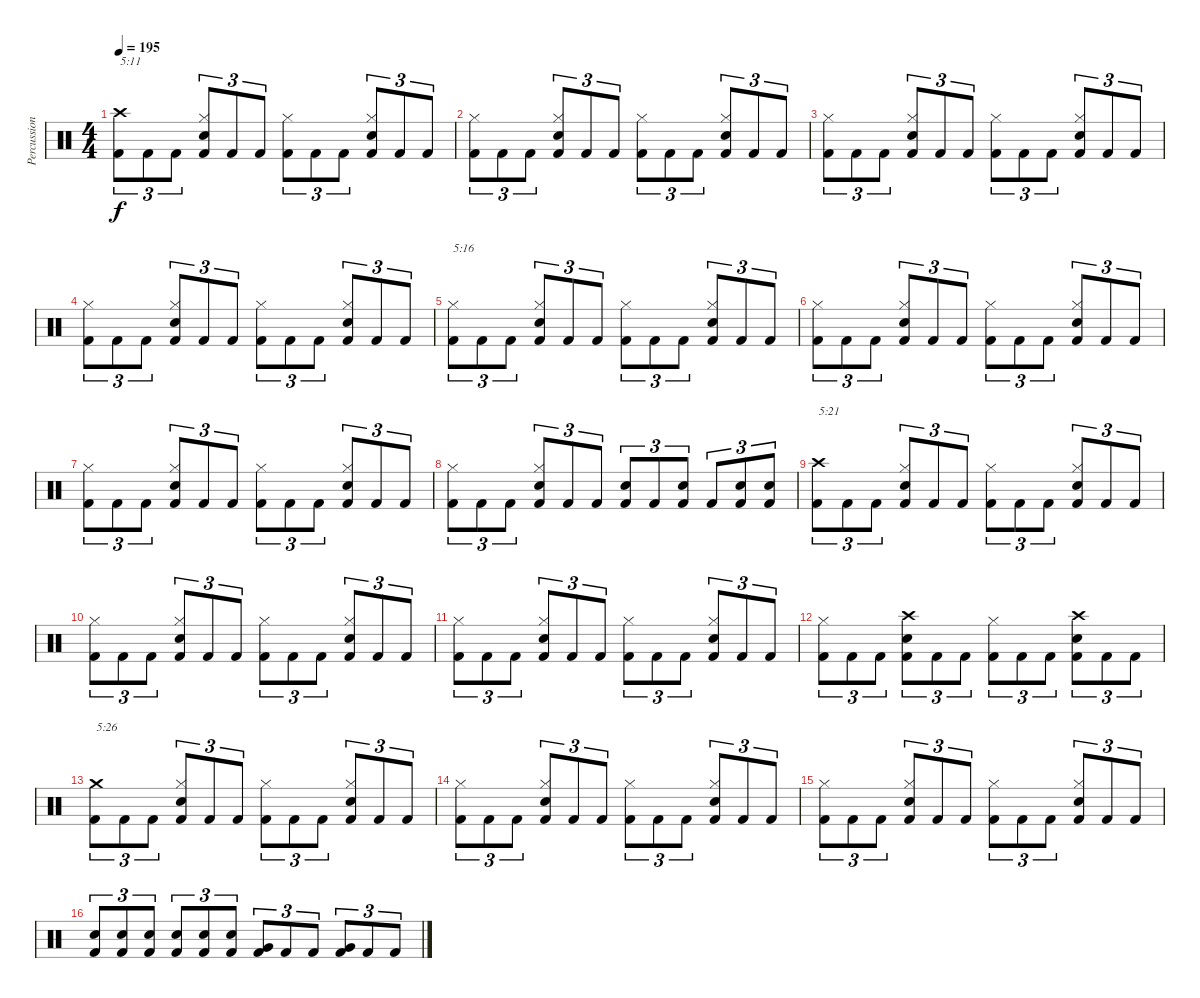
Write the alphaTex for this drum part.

\track ("Percussion" "Percussion") {instrument percussion}
\staff {score}
\articulation defaults
\ts (4 4)
\tempo 195
\clef neutral
\ks c
("Crash high (hit)" "Kick (hit) 2").8{tu (3 2) txt "5:11" dy f} "Kick (hit) 2".8{tu (3 2)} "Kick (hit) 2".8{tu (3 2)} ("Hi-Hat (closed)" "Snare (hit) 2" "Kick (hit) 2").8{tu (3 2)} "Kick (hit) 2".8{tu (3 2)} "Kick (hit) 2".8{tu (3 2)} ("Hi-Hat (closed)" "Kick (hit) 2").8{tu (3 2)} "Kick (hit) 2".8{tu (3 2)} "Kick (hit) 2".8{tu (3 2)} ("Hi-Hat (closed)" "Snare (hit) 2" "Kick (hit) 2").8{tu (3 2)} "Kick (hit) 2".8{tu (3 2)} "Kick (hit) 2".8{tu (3 2)} |
("Hi-Hat (closed)" "Kick (hit) 2").8{tu (3 2)} "Kick (hit) 2".8{tu (3 2)} "Kick (hit) 2".8{tu (3 2)} ("Hi-Hat (closed)" "Snare (hit) 2" "Kick (hit) 2").8{tu (3 2)} "Kick (hit) 2".8{tu (3 2)} "Kick (hit) 2".8{tu (3 2)} ("Hi-Hat (closed)" "Kick (hit) 2").8{tu (3 2)} "Kick (hit) 2".8{tu (3 2)} "Kick (hit) 2".8{tu (3 2)} ("Hi-Hat (closed)" "Snare (hit) 2" "Kick (hit) 2").8{tu (3 2)} "Kick (hit) 2".8{tu (3 2)} "Kick (hit) 2".8{tu (3 2)} |
("Hi-Hat (closed)" "Kick (hit) 2").8{tu (3 2)} "Kick (hit) 2".8{tu (3 2)} "Kick (hit) 2".8{tu (3 2)} ("Hi-Hat (closed)" "Snare (hit) 2" "Kick (hit) 2").8{tu (3 2)} "Kick (hit) 2".8{tu (3 2)} "Kick (hit) 2".8{tu (3 2)} ("Hi-Hat (closed)" "Kick (hit) 2").8{tu (3 2)} "Kick (hit) 2".8{tu (3 2)} "Kick (hit) 2".8{tu (3 2)} ("Hi-Hat (closed)" "Snare (hit) 2" "Kick (hit) 2").8{tu (3 2)} "Kick (hit) 2".8{tu (3 2)} "Kick (hit) 2".8{tu (3 2)} |
("Hi-Hat (closed)" "Kick (hit) 2").8{tu (3 2)} "Kick (hit) 2".8{tu (3 2)} "Kick (hit) 2".8{tu (3 2)} ("Hi-Hat (closed)" "Snare (hit) 2" "Kick (hit) 2").8{tu (3 2)} "Kick (hit) 2".8{tu (3 2)} "Kick (hit) 2".8{tu (3 2)} ("Hi-Hat (closed)" "Kick (hit) 2").8{tu (3 2)} "Kick (hit) 2".8{tu (3 2)} "Kick (hit) 2".8{tu (3 2)} ("Hi-Hat (closed)" "Snare (hit) 2" "Kick (hit) 2").8{tu (3 2)} "Kick (hit) 2".8{tu (3 2)} "Kick (hit) 2".8{tu (3 2)} |
("Hi-Hat (closed)" "Kick (hit) 2").8{tu (3 2) txt "5:16"} "Kick (hit) 2".8{tu (3 2)} "Kick (hit) 2".8{tu (3 2)} ("Hi-Hat (closed)" "Snare (hit) 2" "Kick (hit) 2").8{tu (3 2)} "Kick (hit) 2".8{tu (3 2)} "Kick (hit) 2".8{tu (3 2)} ("Hi-Hat (closed)" "Kick (hit) 2").8{tu (3 2)} "Kick (hit) 2".8{tu (3 2)} "Kick (hit) 2".8{tu (3 2)} ("Hi-Hat (closed)" "Snare (hit) 2" "Kick (hit) 2").8{tu (3 2)} "Kick (hit) 2".8{tu (3 2)} "Kick (hit) 2".8{tu (3 2)} |
("Hi-Hat (closed)" "Kick (hit) 2").8{tu (3 2)} "Kick (hit) 2".8{tu (3 2)} "Kick (hit) 2".8{tu (3 2)} ("Hi-Hat (closed)" "Snare (hit) 2" "Kick (hit) 2").8{tu (3 2)} "Kick (hit) 2".8{tu (3 2)} "Kick (hit) 2".8{tu (3 2)} ("Hi-Hat (closed)" "Kick (hit) 2").8{tu (3 2)} "Kick (hit) 2".8{tu (3 2)} "Kick (hit) 2".8{tu (3 2)} ("Hi-Hat (closed)" "Snare (hit) 2" "Kick (hit) 2").8{tu (3 2)} "Kick (hit) 2".8{tu (3 2)} "Kick (hit) 2".8{tu (3 2)} |
("Hi-Hat (closed)" "Kick (hit) 2").8{tu (3 2)} "Kick (hit) 2".8{tu (3 2)} "Kick (hit) 2".8{tu (3 2)} ("Hi-Hat (closed)" "Snare (hit) 2" "Kick (hit) 2").8{tu (3 2)} "Kick (hit) 2".8{tu (3 2)} "Kick (hit) 2".8{tu (3 2)} ("Hi-Hat (closed)" "Kick (hit) 2").8{tu (3 2)} "Kick (hit) 2".8{tu (3 2)} "Kick (hit) 2".8{tu (3 2)} ("Hi-Hat (closed)" "Snare (hit) 2" "Kick (hit) 2").8{tu (3 2)} "Kick (hit) 2".8{tu (3 2)} "Kick (hit) 2".8{tu (3 2)} |
("Hi-Hat (closed)" "Kick (hit) 2").8{tu (3 2)} "Kick (hit) 2".8{tu (3 2)} "Kick (hit) 2".8{tu (3 2)} ("Hi-Hat (closed)" "Snare (hit) 2" "Kick (hit) 2").8{tu (3 2)} "Kick (hit) 2".8{tu (3 2)} "Kick (hit) 2".8{tu (3 2)} ("Snare (hit) 2" "Kick (hit) 2").8{tu (3 2)} "Kick (hit) 2".8{tu (3 2)} ("Snare (hit) 2" "Kick (hit) 2").8{tu (3 2)} "Kick (hit) 2".8{tu (3 2)} ("Snare (hit) 2" "Kick (hit) 2").8{tu (3 2)} ("Snare (hit) 2" "Kick (hit) 2").8{tu (3 2)} |
("Crash high (hit)" "Kick (hit) 2").8{tu (3 2) txt "5:21"} "Kick (hit) 2".8{tu (3 2)} "Kick (hit) 2".8{tu (3 2)} ("Hi-Hat (closed)" "Snare (hit) 2" "Kick (hit) 2").8{tu (3 2)} "Kick (hit) 2".8{tu (3 2)} "Kick (hit) 2".8{tu (3 2)} ("Hi-Hat (closed)" "Kick (hit) 2").8{tu (3 2)} "Kick (hit) 2".8{tu (3 2)} "Kick (hit) 2".8{tu (3 2)} ("Hi-Hat (closed)" "Snare (hit) 2" "Kick (hit) 2").8{tu (3 2)} "Kick (hit) 2".8{tu (3 2)} "Kick (hit) 2".8{tu (3 2)} |
("Hi-Hat (closed)" "Kick (hit) 2").8{tu (3 2)} "Kick (hit) 2".8{tu (3 2)} "Kick (hit) 2".8{tu (3 2)} ("Hi-Hat (closed)" "Snare (hit) 2" "Kick (hit) 2").8{tu (3 2)} "Kick (hit) 2".8{tu (3 2)} "Kick (hit) 2".8{tu (3 2)} ("Hi-Hat (closed)" "Kick (hit) 2").8{tu (3 2)} "Kick (hit) 2".8{tu (3 2)} "Kick (hit) 2".8{tu (3 2)} ("Hi-Hat (closed)" "Snare (hit) 2" "Kick (hit) 2").8{tu (3 2)} "Kick (hit) 2".8{tu (3 2)} "Kick (hit) 2".8{tu (3 2)} |
("Hi-Hat (closed)" "Kick (hit) 2").8{tu (3 2)} "Kick (hit) 2".8{tu (3 2)} "Kick (hit) 2".8{tu (3 2)} ("Hi-Hat (closed)" "Snare (hit) 2" "Kick (hit) 2").8{tu (3 2)} "Kick (hit) 2".8{tu (3 2)} "Kick (hit) 2".8{tu (3 2)} ("Hi-Hat (closed)" "Kick (hit) 2").8{tu (3 2)} "Kick (hit) 2".8{tu (3 2)} "Kick (hit) 2".8{tu (3 2)} ("Hi-Hat (closed)" "Snare (hit) 2" "Kick (hit) 2").8{tu (3 2)} "Kick (hit) 2".8{tu (3 2)} "Kick (hit) 2".8{tu (3 2)} |
("Hi-Hat (closed)" "Kick (hit) 2").8{tu (3 2)} "Kick (hit) 2".8{tu (3 2)} "Kick (hit) 2".8{tu (3 2)} ("Crash high (hit)" "Snare (hit) 2" "Kick (hit) 2").8{tu (3 2)} "Kick (hit) 2".8{tu (3 2)} "Kick (hit) 2".8{tu (3 2)} ("Hi-Hat (closed)" "Kick (hit) 2").8{tu (3 2)} "Kick (hit) 2".8{tu (3 2)} "Kick (hit) 2".8{tu (3 2)} ("Crash high (hit)" "Snare (hit) 2" "Kick (hit) 2").8{tu (3 2)} "Kick (hit) 2".8{tu (3 2)} "Kick (hit) 2".8{tu (3 2)} |
("Crash medium (hit)" "Kick (hit) 2").8{tu (3 2) txt "5:26"} "Kick (hit) 2".8{tu (3 2)} "Kick (hit) 2".8{tu (3 2)} ("Hi-Hat (closed)" "Snare (hit) 2" "Kick (hit) 2").8{tu (3 2)} "Kick (hit) 2".8{tu (3 2)} "Kick (hit) 2".8{tu (3 2)} ("Hi-Hat (closed)" "Kick (hit) 2").8{tu (3 2)} "Kick (hit) 2".8{tu (3 2)} "Kick (hit) 2".8{tu (3 2)} ("Hi-Hat (closed)" "Snare (hit) 2" "Kick (hit) 2").8{tu (3 2)} "Kick (hit) 2".8{tu (3 2)} "Kick (hit) 2".8{tu (3 2)} |
("Hi-Hat (closed)" "Kick (hit) 2").8{tu (3 2)} "Kick (hit) 2".8{tu (3 2)} "Kick (hit) 2".8{tu (3 2)} ("Hi-Hat (closed)" "Snare (hit) 2" "Kick (hit) 2").8{tu (3 2)} "Kick (hit) 2".8{tu (3 2)} "Kick (hit) 2".8{tu (3 2)} ("Hi-Hat (closed)" "Kick (hit) 2").8{tu (3 2)} "Kick (hit) 2".8{tu (3 2)} "Kick (hit) 2".8{tu (3 2)} ("Hi-Hat (closed)" "Snare (hit) 2" "Kick (hit) 2").8{tu (3 2)} "Kick (hit) 2".8{tu (3 2)} "Kick (hit) 2".8{tu (3 2)} |
("Hi-Hat (closed)" "Kick (hit) 2").8{tu (3 2)} "Kick (hit) 2".8{tu (3 2)} "Kick (hit) 2".8{tu (3 2)} ("Hi-Hat (closed)" "Snare (hit) 2" "Kick (hit) 2").8{tu (3 2)} "Kick (hit) 2".8{tu (3 2)} "Kick (hit) 2".8{tu (3 2)} ("Hi-Hat (closed)" "Kick (hit) 2").8{tu (3 2)} "Kick (hit) 2".8{tu (3 2)} "Kick (hit) 2".8{tu (3 2)} ("Hi-Hat (closed)" "Snare (hit) 2" "Kick (hit) 2").8{tu (3 2)} "Kick (hit) 2".8{tu (3 2)} "Kick (hit) 2".8{tu (3 2)} |
("Snare (hit) 2" "Kick (hit) 2").8{tu (3 2)} ("Snare (hit) 2" "Kick (hit) 2").8{tu (3 2)} ("Snare (hit) 2" "Kick (hit) 2").8{tu (3 2)} ("Snare (hit) 2" "Kick (hit) 2").8{tu (3 2)} ("Snare (hit) 2" "Kick (hit) 2").8{tu (3 2)} ("Snare (hit) 2" "Kick (hit) 2").8{tu (3 2)} ("Very Low Tom (hit)" "Kick (hit) 2").8{tu (3 2)} "Kick (hit) 2".8{tu (3 2)} "Kick (hit) 2".8{tu (3 2)} ("Very Low Tom (hit)" "Kick (hit) 2").8{tu (3 2)} "Kick (hit) 2".8{tu (3 2)} "Kick (hit) 2".8{tu (3 2)}
